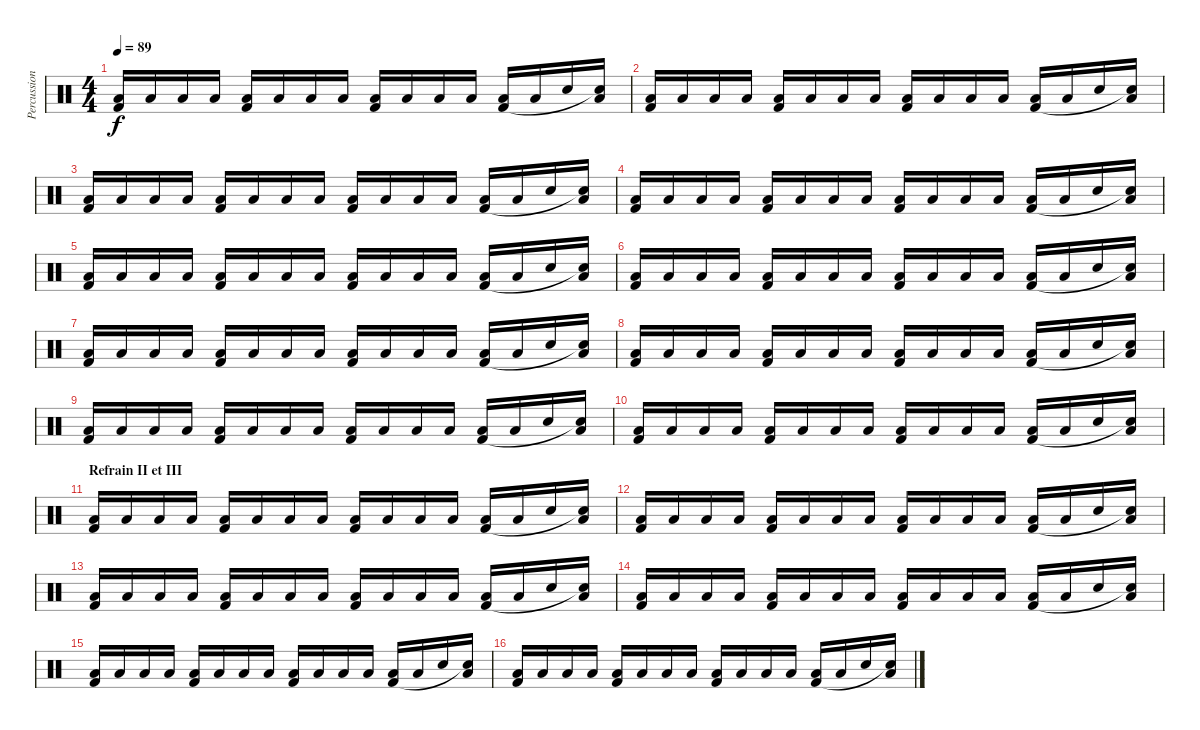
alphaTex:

\track ("Percussions" "Percussion") {instrument percussion}
\staff {score}
\articulation defaults
\ts (4 4)
\tempo 89
\clef neutral
\ks c
("Low Floor Tom (hit)" "Kick (hit) 2").16{dy f} "Low Floor Tom (hit)".16 "Low Floor Tom (hit)".16 "Low Floor Tom (hit)".16 ("Low Floor Tom (hit)" "Kick (hit) 2").16 "Low Floor Tom (hit)".16 "Low Floor Tom (hit)".16 "Low Floor Tom (hit)".16 ("Low Floor Tom (hit)" "Kick (hit) 2").16 "Low Floor Tom (hit)".16 "Low Floor Tom (hit)".16 "Low Floor Tom (hit)".16 ("Low Floor Tom (hit)" "Kick (hit) 2").16 "Low Floor Tom (hit)".16 "Electric Snare (hit)".16 ("Low Floor Tom (hit)" "Snare (hit)"{t}).16 |
("Low Floor Tom (hit)" "Kick (hit) 2").16 "Low Floor Tom (hit)".16 "Low Floor Tom (hit)".16 "Low Floor Tom (hit)".16 ("Low Floor Tom (hit)" "Kick (hit) 2").16 "Low Floor Tom (hit)".16 "Low Floor Tom (hit)".16 "Low Floor Tom (hit)".16 ("Low Floor Tom (hit)" "Kick (hit) 2").16 "Low Floor Tom (hit)".16 "Low Floor Tom (hit)".16 "Low Floor Tom (hit)".16 ("Low Floor Tom (hit)" "Kick (hit) 2").16 "Low Floor Tom (hit)".16 "Electric Snare (hit)".16 ("Low Floor Tom (hit)" "Snare (hit)"{t}).16 |
("Low Floor Tom (hit)" "Kick (hit) 2").16 "Low Floor Tom (hit)".16 "Low Floor Tom (hit)".16 "Low Floor Tom (hit)".16 ("Low Floor Tom (hit)" "Kick (hit) 2").16 "Low Floor Tom (hit)".16 "Low Floor Tom (hit)".16 "Low Floor Tom (hit)".16 ("Low Floor Tom (hit)" "Kick (hit) 2").16 "Low Floor Tom (hit)".16 "Low Floor Tom (hit)".16 "Low Floor Tom (hit)".16 ("Low Floor Tom (hit)" "Kick (hit) 2").16 "Low Floor Tom (hit)".16 "Electric Snare (hit)".16 ("Low Floor Tom (hit)" "Snare (hit)"{t}).16 |
("Low Floor Tom (hit)" "Kick (hit) 2").16 "Low Floor Tom (hit)".16 "Low Floor Tom (hit)".16 "Low Floor Tom (hit)".16 ("Low Floor Tom (hit)" "Kick (hit) 2").16 "Low Floor Tom (hit)".16 "Low Floor Tom (hit)".16 "Low Floor Tom (hit)".16 ("Low Floor Tom (hit)" "Kick (hit) 2").16 "Low Floor Tom (hit)".16 "Low Floor Tom (hit)".16 "Low Floor Tom (hit)".16 ("Low Floor Tom (hit)" "Kick (hit) 2").16 "Low Floor Tom (hit)".16 "Electric Snare (hit)".16 ("Low Floor Tom (hit)" "Snare (hit)"{t}).16 |
("Low Floor Tom (hit)" "Kick (hit) 2").16 "Low Floor Tom (hit)".16 "Low Floor Tom (hit)".16 "Low Floor Tom (hit)".16 ("Low Floor Tom (hit)" "Kick (hit) 2").16 "Low Floor Tom (hit)".16 "Low Floor Tom (hit)".16 "Low Floor Tom (hit)".16 ("Low Floor Tom (hit)" "Kick (hit) 2").16 "Low Floor Tom (hit)".16 "Low Floor Tom (hit)".16 "Low Floor Tom (hit)".16 ("Low Floor Tom (hit)" "Kick (hit) 2").16 "Low Floor Tom (hit)".16 "Electric Snare (hit)".16 ("Low Floor Tom (hit)" "Snare (hit)"{t}).16 |
("Low Floor Tom (hit)" "Kick (hit) 2").16 "Low Floor Tom (hit)".16 "Low Floor Tom (hit)".16 "Low Floor Tom (hit)".16 ("Low Floor Tom (hit)" "Kick (hit) 2").16 "Low Floor Tom (hit)".16 "Low Floor Tom (hit)".16 "Low Floor Tom (hit)".16 ("Low Floor Tom (hit)" "Kick (hit) 2").16 "Low Floor Tom (hit)".16 "Low Floor Tom (hit)".16 "Low Floor Tom (hit)".16 ("Low Floor Tom (hit)" "Kick (hit) 2").16 "Low Floor Tom (hit)".16 "Electric Snare (hit)".16 ("Low Floor Tom (hit)" "Snare (hit)"{t}).16 |
("Low Floor Tom (hit)" "Kick (hit) 2").16 "Low Floor Tom (hit)".16 "Low Floor Tom (hit)".16 "Low Floor Tom (hit)".16 ("Low Floor Tom (hit)" "Kick (hit) 2").16 "Low Floor Tom (hit)".16 "Low Floor Tom (hit)".16 "Low Floor Tom (hit)".16 ("Low Floor Tom (hit)" "Kick (hit) 2").16 "Low Floor Tom (hit)".16 "Low Floor Tom (hit)".16 "Low Floor Tom (hit)".16 ("Low Floor Tom (hit)" "Kick (hit) 2").16 "Low Floor Tom (hit)".16 "Electric Snare (hit)".16 ("Low Floor Tom (hit)" "Snare (hit)"{t}).16 |
("Low Floor Tom (hit)" "Kick (hit) 2").16 "Low Floor Tom (hit)".16 "Low Floor Tom (hit)".16 "Low Floor Tom (hit)".16 ("Low Floor Tom (hit)" "Kick (hit) 2").16 "Low Floor Tom (hit)".16 "Low Floor Tom (hit)".16 "Low Floor Tom (hit)".16 ("Low Floor Tom (hit)" "Kick (hit) 2").16 "Low Floor Tom (hit)".16 "Low Floor Tom (hit)".16 "Low Floor Tom (hit)".16 ("Low Floor Tom (hit)" "Kick (hit) 2").16 "Low Floor Tom (hit)".16 "Electric Snare (hit)".16 ("Low Floor Tom (hit)" "Snare (hit)"{t}).16 |
("Low Floor Tom (hit)" "Kick (hit) 2").16 "Low Floor Tom (hit)".16 "Low Floor Tom (hit)".16 "Low Floor Tom (hit)".16 ("Low Floor Tom (hit)" "Kick (hit) 2").16 "Low Floor Tom (hit)".16 "Low Floor Tom (hit)".16 "Low Floor Tom (hit)".16 ("Low Floor Tom (hit)" "Kick (hit) 2").16 "Low Floor Tom (hit)".16 "Low Floor Tom (hit)".16 "Low Floor Tom (hit)".16 ("Low Floor Tom (hit)" "Kick (hit) 2").16 "Low Floor Tom (hit)".16 "Electric Snare (hit)".16 ("Low Floor Tom (hit)" "Snare (hit)"{t}).16 |
("Low Floor Tom (hit)" "Kick (hit) 2").16 "Low Floor Tom (hit)".16 "Low Floor Tom (hit)".16 "Low Floor Tom (hit)".16 ("Low Floor Tom (hit)" "Kick (hit) 2").16 "Low Floor Tom (hit)".16 "Low Floor Tom (hit)".16 "Low Floor Tom (hit)".16 ("Low Floor Tom (hit)" "Kick (hit) 2").16 "Low Floor Tom (hit)".16 "Low Floor Tom (hit)".16 "Low Floor Tom (hit)".16 ("Low Floor Tom (hit)" "Kick (hit) 2").16 "Low Floor Tom (hit)".16 "Electric Snare (hit)".16 ("Low Floor Tom (hit)" "Snare (hit)"{t}).16 |
\section ("" "Refrain II et III")
("Low Floor Tom (hit)" "Kick (hit) 2").16 "Low Floor Tom (hit)".16 "Low Floor Tom (hit)".16 "Low Floor Tom (hit)".16 ("Low Floor Tom (hit)" "Kick (hit) 2").16 "Low Floor Tom (hit)".16 "Low Floor Tom (hit)".16 "Low Floor Tom (hit)".16 ("Low Floor Tom (hit)" "Kick (hit) 2").16 "Low Floor Tom (hit)".16 "Low Floor Tom (hit)".16 "Low Floor Tom (hit)".16 ("Low Floor Tom (hit)" "Kick (hit) 2").16 "Low Floor Tom (hit)".16 "Electric Snare (hit)".16 ("Low Floor Tom (hit)" "Snare (hit)"{t}).16 |
("Low Floor Tom (hit)" "Kick (hit) 2").16 "Low Floor Tom (hit)".16 "Low Floor Tom (hit)".16 "Low Floor Tom (hit)".16 ("Low Floor Tom (hit)" "Kick (hit) 2").16 "Low Floor Tom (hit)".16 "Low Floor Tom (hit)".16 "Low Floor Tom (hit)".16 ("Low Floor Tom (hit)" "Kick (hit) 2").16 "Low Floor Tom (hit)".16 "Low Floor Tom (hit)".16 "Low Floor Tom (hit)".16 ("Low Floor Tom (hit)" "Kick (hit) 2").16 "Low Floor Tom (hit)".16 "Electric Snare (hit)".16 ("Low Floor Tom (hit)" "Snare (hit)"{t}).16 |
("Low Floor Tom (hit)" "Kick (hit) 2").16 "Low Floor Tom (hit)".16 "Low Floor Tom (hit)".16 "Low Floor Tom (hit)".16 ("Low Floor Tom (hit)" "Kick (hit) 2").16 "Low Floor Tom (hit)".16 "Low Floor Tom (hit)".16 "Low Floor Tom (hit)".16 ("Low Floor Tom (hit)" "Kick (hit) 2").16 "Low Floor Tom (hit)".16 "Low Floor Tom (hit)".16 "Low Floor Tom (hit)".16 ("Low Floor Tom (hit)" "Kick (hit) 2").16 "Low Floor Tom (hit)".16 "Electric Snare (hit)".16 ("Low Floor Tom (hit)" "Snare (hit)"{t}).16 |
("Low Floor Tom (hit)" "Kick (hit) 2").16 "Low Floor Tom (hit)".16 "Low Floor Tom (hit)".16 "Low Floor Tom (hit)".16 ("Low Floor Tom (hit)" "Kick (hit) 2").16 "Low Floor Tom (hit)".16 "Low Floor Tom (hit)".16 "Low Floor Tom (hit)".16 ("Low Floor Tom (hit)" "Kick (hit) 2").16 "Low Floor Tom (hit)".16 "Low Floor Tom (hit)".16 "Low Floor Tom (hit)".16 ("Low Floor Tom (hit)" "Kick (hit) 2").16 "Low Floor Tom (hit)".16 "Electric Snare (hit)".16 ("Low Floor Tom (hit)" "Snare (hit)"{t}).16 |
("Low Floor Tom (hit)" "Kick (hit) 2").16 "Low Floor Tom (hit)".16 "Low Floor Tom (hit)".16 "Low Floor Tom (hit)".16 ("Low Floor Tom (hit)" "Kick (hit) 2").16 "Low Floor Tom (hit)".16 "Low Floor Tom (hit)".16 "Low Floor Tom (hit)".16 ("Low Floor Tom (hit)" "Kick (hit) 2").16 "Low Floor Tom (hit)".16 "Low Floor Tom (hit)".16 "Low Floor Tom (hit)".16 ("Low Floor Tom (hit)" "Kick (hit) 2").16 "Low Floor Tom (hit)".16 "Electric Snare (hit)".16 ("Low Floor Tom (hit)" "Snare (hit)"{t}).16 |
("Low Floor Tom (hit)" "Kick (hit) 2").16 "Low Floor Tom (hit)".16 "Low Floor Tom (hit)".16 "Low Floor Tom (hit)".16 ("Low Floor Tom (hit)" "Kick (hit) 2").16 "Low Floor Tom (hit)".16 "Low Floor Tom (hit)".16 "Low Floor Tom (hit)".16 ("Low Floor Tom (hit)" "Kick (hit) 2").16 "Low Floor Tom (hit)".16 "Low Floor Tom (hit)".16 "Low Floor Tom (hit)".16 ("Low Floor Tom (hit)" "Kick (hit) 2").16 "Low Floor Tom (hit)".16 "Electric Snare (hit)".16 ("Low Floor Tom (hit)" "Snare (hit)"{t}).16
